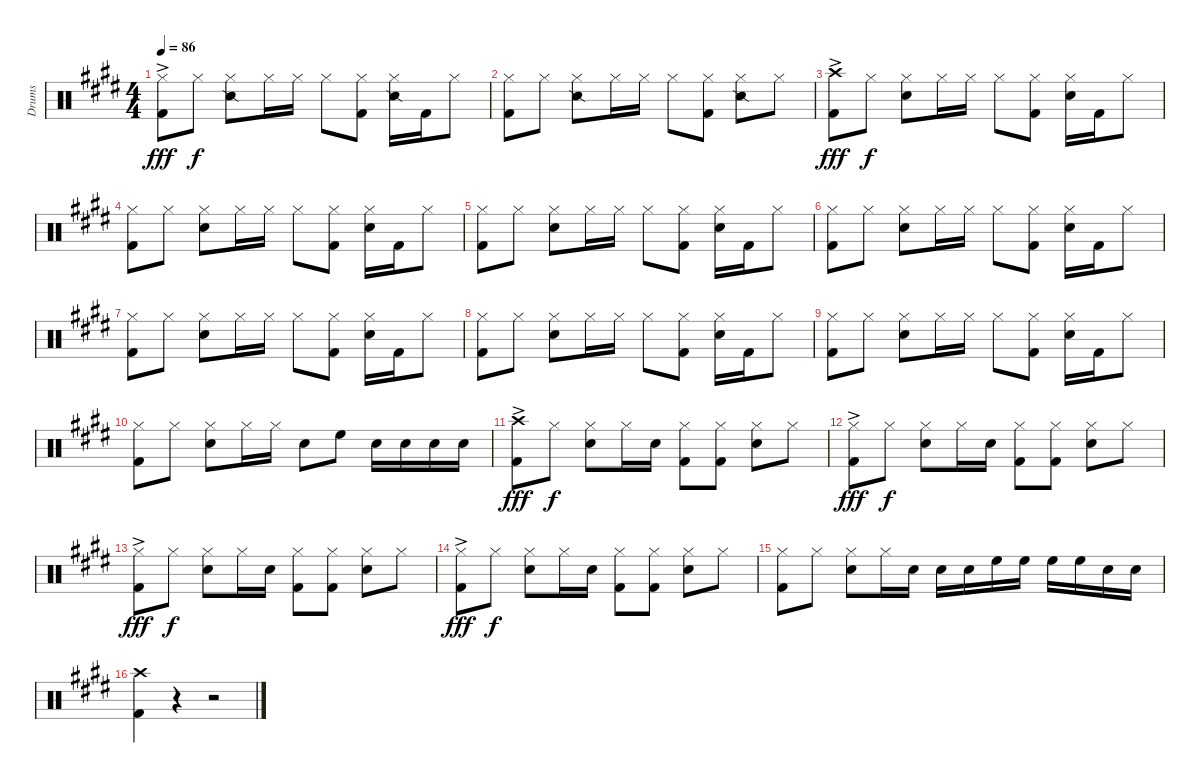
\track ("Drums" "Drums") {instrument percussion}
\staff {score}
\articulation defaults
\ts (4 4)
\tempo 86
\clef neutral
\ks e
("Hi-Hat (closed)" "Kick (hit) 2"{ac}).8{dy fff} "Hi-Hat (closed)".8{dy f} ("Hi-Hat (closed)" "Snare (side stick) 2").8 "Hi-Hat (closed)".16 "Hi-Hat (closed)".16 "Hi-Hat (closed)".8 ("Hi-Hat (closed)" "Kick (hit) 2").8 ("Hi-Hat (closed)" "Snare (side stick) 2").16 "Kick (hit) 2".16 "Hi-Hat (closed)".8 |
("Hi-Hat (closed)" "Kick (hit) 2").8 "Hi-Hat (closed)".8 ("Hi-Hat (closed)" "Snare (side stick) 2").8 "Hi-Hat (closed)".16 "Hi-Hat (closed)".16 "Hi-Hat (closed)".8 ("Hi-Hat (closed)" "Kick (hit) 2").8 ("Hi-Hat (closed)" "Snare (side stick) 2").8 "Hi-Hat (closed)".8 |
("Crash high (hit)"{ac} "Kick (hit) 2").8{dy fff} "Hi-Hat (closed)".8{dy f} ("Hi-Hat (closed)" "Snare (hit) 2").8 "Hi-Hat (closed)".16 "Hi-Hat (closed)".16 "Hi-Hat (closed)".8 ("Hi-Hat (closed)" "Kick (hit) 2").8 ("Hi-Hat (closed)" "Snare (hit) 2").16 "Kick (hit) 2".16 "Hi-Hat (closed)".8 |
("Hi-Hat (closed)" "Kick (hit) 2").8 "Hi-Hat (closed)".8 ("Hi-Hat (closed)" "Snare (hit) 2").8 "Hi-Hat (closed)".16 "Hi-Hat (closed)".16 "Hi-Hat (closed)".8 ("Hi-Hat (closed)" "Kick (hit) 2").8 ("Hi-Hat (closed)" "Snare (hit) 2").16 "Kick (hit) 2".16 "Hi-Hat (closed)".8 |
("Hi-Hat (closed)" "Kick (hit) 2").8 "Hi-Hat (closed)".8 ("Hi-Hat (closed)" "Snare (hit) 2").8 "Hi-Hat (closed)".16 "Hi-Hat (closed)".16 "Hi-Hat (closed)".8 ("Hi-Hat (closed)" "Kick (hit) 2").8 ("Hi-Hat (closed)" "Snare (hit) 2").16 "Kick (hit) 2".16 "Hi-Hat (closed)".8 |
("Hi-Hat (closed)" "Kick (hit) 2").8 "Hi-Hat (closed)".8 ("Hi-Hat (closed)" "Snare (hit) 2").8 "Hi-Hat (closed)".16 "Hi-Hat (closed)".16 "Hi-Hat (closed)".8 ("Hi-Hat (closed)" "Kick (hit) 2").8 ("Hi-Hat (closed)" "Snare (hit) 2").16 "Kick (hit) 2".16 "Hi-Hat (closed)".8 |
("Hi-Hat (closed)" "Kick (hit) 2").8 "Hi-Hat (closed)".8 ("Hi-Hat (closed)" "Snare (hit) 2").8 "Hi-Hat (closed)".16 "Hi-Hat (closed)".16 "Hi-Hat (closed)".8 ("Hi-Hat (closed)" "Kick (hit) 2").8 ("Hi-Hat (closed)" "Snare (hit) 2").16 "Kick (hit) 2".16 "Hi-Hat (closed)".8 |
("Hi-Hat (closed)" "Kick (hit) 2").8 "Hi-Hat (closed)".8 ("Hi-Hat (closed)" "Snare (hit) 2").8 "Hi-Hat (closed)".16 "Hi-Hat (closed)".16 "Hi-Hat (closed)".8 ("Hi-Hat (closed)" "Kick (hit) 2").8 ("Hi-Hat (closed)" "Snare (hit) 2").16 "Kick (hit) 2".16 "Hi-Hat (closed)".8 |
("Hi-Hat (closed)" "Kick (hit) 2").8 "Hi-Hat (closed)".8 ("Hi-Hat (closed)" "Snare (hit) 2").8 "Hi-Hat (closed)".16 "Hi-Hat (closed)".16 "Hi-Hat (closed)".8 ("Hi-Hat (closed)" "Kick (hit) 2").8 ("Hi-Hat (closed)" "Snare (hit) 2").16 "Kick (hit) 2".16 "Hi-Hat (closed)".8 |
("Hi-Hat (closed)" "Kick (hit) 2").8 "Hi-Hat (closed)".8 ("Hi-Hat (closed)" "Snare (hit) 2").8 "Hi-Hat (closed)".16 "Hi-Hat (closed)".16 "Snare (hit) 2".8 "High Floor Tom (hit)".8 "Snare (hit) 2".16 "Snare (hit) 2".16 "Snare (hit) 2".16 "Snare (hit) 2".16 |
("Crash high (hit)"{ac} "Kick (hit) 2").8{dy fff} "Hi-Hat (closed)".8{dy f} ("Hi-Hat (closed)" "Snare (hit) 2").8 "Hi-Hat (closed)".16 "Snare (hit) 2".16 ("Hi-Hat (closed)" "Kick (hit) 2").8 ("Hi-Hat (closed)" "Kick (hit) 2").8 ("Hi-Hat (closed)" "Snare (hit) 2").8 "Hi-Hat (closed)".8 |
("Hi-Hat (closed)"{ac} "Kick (hit) 2").8{dy fff} "Hi-Hat (closed)".8{dy f} ("Hi-Hat (closed)" "Snare (hit) 2").8 "Hi-Hat (closed)".16 "Snare (hit) 2".16 ("Hi-Hat (closed)" "Kick (hit) 2").8 ("Hi-Hat (closed)" "Kick (hit) 2").8 ("Hi-Hat (closed)" "Snare (hit) 2").8 "Hi-Hat (closed)".8 |
("Hi-Hat (closed)"{ac} "Kick (hit) 2").8{dy fff} "Hi-Hat (closed)".8{dy f} ("Hi-Hat (closed)" "Snare (hit) 2").8 "Hi-Hat (closed)".16 "Snare (hit) 2".16 ("Hi-Hat (closed)" "Kick (hit) 2").8 ("Hi-Hat (closed)" "Kick (hit) 2").8 ("Hi-Hat (closed)" "Snare (hit) 2").8 "Hi-Hat (closed)".8 |
("Hi-Hat (closed)"{ac} "Kick (hit) 2").8{dy fff} "Hi-Hat (closed)".8{dy f} ("Hi-Hat (closed)" "Snare (hit) 2").8 "Hi-Hat (closed)".16 "Snare (hit) 2".16 ("Hi-Hat (closed)" "Kick (hit) 2").8 ("Hi-Hat (closed)" "Kick (hit) 2").8 ("Hi-Hat (closed)" "Snare (hit) 2").8 "Hi-Hat (closed)".8 |
("Hi-Hat (closed)" "Kick (hit) 2").8 "Hi-Hat (closed)".8 ("Hi-Hat (closed)" "Snare (hit) 2").8 "Hi-Hat (closed)".16 "Snare (hit) 2".16 "Snare (hit) 2".16 "Snare (hit) 2".16 "High Floor Tom (hit)".16 "High Floor Tom (hit)".16 "High Floor Tom (hit)".16 "High Floor Tom (hit)".16 "Snare (hit) 2".16 "Snare (hit) 2".16 |
("Crash high (hit)" "Kick (hit) 2").4 r.4 r.2
